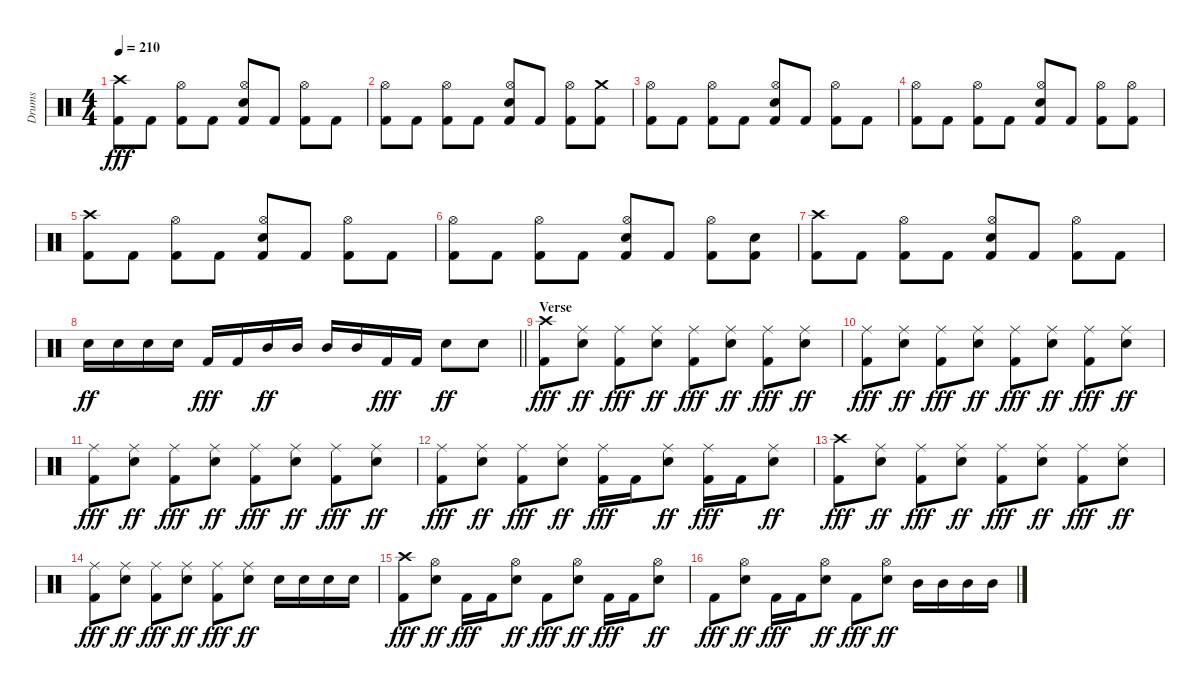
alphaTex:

\track ("Drums" "Drums") {instrument percussion}
\staff {score}
\articulation defaults
\ts (4 4)
\tempo 210
\clef neutral
\ks c
("Crash high (hit)" "Kick (hit) 2").8{dy fff} "Kick (hit) 2".8 ("Hi-Hat (open)" "Kick (hit) 2").8 "Kick (hit) 2".8 ("Hi-Hat (open)" "Snare (hit) 2" "Kick (hit) 2").8 "Kick (hit) 2".8 ("Hi-Hat (open)" "Kick (hit) 2").8 "Kick (hit) 2".8 |
("Hi-Hat (open)" "Kick (hit) 2").8 "Kick (hit) 2".8 ("Hi-Hat (open)" "Kick (hit) 2").8 "Kick (hit) 2".8 ("Hi-Hat (open)" "Snare (hit) 2" "Kick (hit) 2").8 "Kick (hit) 2".8 ("Hi-Hat (open)" "Kick (hit) 2").8 ("Crash medium (hit)" "Kick (hit) 2").8 |
("Hi-Hat (open)" "Kick (hit) 2").8 "Kick (hit) 2".8 ("Hi-Hat (open)" "Kick (hit) 2").8 "Kick (hit) 2".8 ("Hi-Hat (open)" "Snare (hit) 2" "Kick (hit) 2").8 "Kick (hit) 2".8 ("Hi-Hat (open)" "Kick (hit) 2").8 "Kick (hit) 2".8 |
("Hi-Hat (open)" "Kick (hit) 2").8 "Kick (hit) 2".8 ("Hi-Hat (open)" "Kick (hit) 2").8 "Kick (hit) 2".8 ("Hi-Hat (open)" "Snare (hit) 2" "Kick (hit) 2").8 "Kick (hit) 2".8 ("Hi-Hat (open)" "Kick (hit) 2").8 ("Hi-Hat (open)" "Kick (hit) 2").8 |
("Crash high (hit)" "Kick (hit) 2").8 "Kick (hit) 2".8 ("Hi-Hat (open)" "Kick (hit) 2").8 "Kick (hit) 2".8 ("Hi-Hat (open)" "Snare (hit) 2" "Kick (hit) 2").8 "Kick (hit) 2".8 ("Hi-Hat (open)" "Kick (hit) 2").8 "Kick (hit) 2".8 |
("Hi-Hat (open)" "Kick (hit) 2").8 "Kick (hit) 2".8 ("Hi-Hat (open)" "Kick (hit) 2").8 "Kick (hit) 2".8 ("Hi-Hat (open)" "Snare (hit) 2" "Kick (hit) 2").8 "Kick (hit) 2".8 ("Hi-Hat (open)" "Kick (hit) 2").8 ("Snare (hit) 2" "Kick (hit) 2").8 |
("Crash high (hit)" "Kick (hit) 2").8 "Kick (hit) 2".8 ("Hi-Hat (open)" "Kick (hit) 2").8 "Kick (hit) 2".8 ("Hi-Hat (open)" "Snare (hit) 2" "Kick (hit) 2").8 "Kick (hit) 2".8 ("Hi-Hat (open)" "Kick (hit) 2").8 "Kick (hit) 2".8 |
\barLineRight lightlight "Snare (hit) 2".16{dy ff} "Snare (hit) 2".16 "Snare (hit) 2".16 "Snare (hit) 2".16 "Kick (hit) 2".16{dy fff} "Kick (hit) 2".16 "Mid Tom (hit)".16{dy ff} "Mid Tom (hit)".16 "Mid Tom (hit)".16 "Mid Tom (hit)".16 "Kick (hit) 2".16{dy fff} "Kick (hit) 2".16 "Snare (hit) 2".8{dy ff} "Snare (hit) 2".8
|
\section ("" "Verse")
("Crash high (hit)" "Kick (hit) 2").8{dy fff} ("Ride (middle)" "Snare (hit) 2").8{dy ff} ("Ride (middle)" "Kick (hit) 2").8{dy fff} ("Ride (middle)" "Snare (hit) 2").8{dy ff} ("Ride (middle)" "Kick (hit) 2").8{dy fff} ("Ride (middle)" "Snare (hit) 2").8{dy ff} ("Ride (middle)" "Kick (hit) 2").8{dy fff} ("Ride (middle)" "Snare (hit) 2").8{dy ff} |
("Ride (middle)" "Kick (hit) 2").8{dy fff} ("Ride (middle)" "Snare (hit) 2").8{dy ff} ("Ride (middle)" "Kick (hit) 2").8{dy fff} ("Ride (middle)" "Snare (hit) 2").8{dy ff} ("Ride (middle)" "Kick (hit) 2").8{dy fff} ("Ride (middle)" "Snare (hit) 2").8{dy ff} ("Ride (middle)" "Kick (hit) 2").8{dy fff} ("Ride (middle)" "Snare (hit) 2").8{dy ff} |
("Ride (middle)" "Kick (hit) 2").8{dy fff} ("Ride (middle)" "Snare (hit) 2").8{dy ff} ("Ride (middle)" "Kick (hit) 2").8{dy fff} ("Ride (middle)" "Snare (hit) 2").8{dy ff} ("Ride (middle)" "Kick (hit) 2").8{dy fff} ("Ride (middle)" "Snare (hit) 2").8{dy ff} ("Ride (middle)" "Kick (hit) 2").8{dy fff} ("Ride (middle)" "Snare (hit) 2").8{dy ff} |
("Ride (middle)" "Kick (hit) 2").8{dy fff} ("Ride (middle)" "Snare (hit) 2").8{dy ff} ("Ride (middle)" "Kick (hit) 2").8{dy fff} ("Ride (middle)" "Snare (hit) 2").8{dy ff} ("Ride (middle)" "Kick (hit) 2").16{dy fff} "Kick (hit) 2".16 ("Ride (middle)" "Snare (hit) 2").8{dy ff} ("Ride (middle)" "Kick (hit) 2").16{dy fff} "Kick (hit) 2".16 ("Ride (middle)" "Snare (hit) 2").8{dy ff} |
("Crash high (hit)" "Kick (hit) 2").8{dy fff} ("Ride (middle)" "Snare (hit) 2").8{dy ff} ("Ride (middle)" "Kick (hit) 2").8{dy fff} ("Ride (middle)" "Snare (hit) 2").8{dy ff} ("Ride (middle)" "Kick (hit) 2").8{dy fff} ("Ride (middle)" "Snare (hit) 2").8{dy ff} ("Ride (middle)" "Kick (hit) 2").8{dy fff} ("Ride (middle)" "Snare (hit) 2").8{dy ff} |
("Ride (middle)" "Kick (hit) 2").8{dy fff} ("Ride (middle)" "Snare (hit) 2").8{dy ff} ("Ride (middle)" "Kick (hit) 2").8{dy fff} ("Ride (middle)" "Snare (hit) 2").8{dy ff} ("Ride (middle)" "Kick (hit) 2").8{dy fff} ("Ride (middle)" "Snare (hit) 2").8{dy ff} "Snare (hit) 2".16 "Snare (hit) 2".16 "Snare (hit) 2".16 "Snare (hit) 2".16 |
("Crash high (hit)" "Kick (hit) 2").8{dy fff} ("Hi-Hat (open)" "Snare (hit) 2").8{dy ff} "Kick (hit) 2".16{dy fff} "Kick (hit) 2".16 ("Hi-Hat (open)" "Snare (hit) 2").8{dy ff} "Kick (hit) 2".8{dy fff} ("Hi-Hat (open)" "Snare (hit) 2").8{dy ff} "Kick (hit) 2".16{dy fff} "Kick (hit) 2".16 ("Hi-Hat (open)" "Snare (hit) 2").8{dy ff} |
"Kick (hit) 2".8{dy fff} ("Hi-Hat (open)" "Snare (hit) 2").8{dy ff} "Kick (hit) 2".16{dy fff} "Kick (hit) 2".16 ("Hi-Hat (open)" "Snare (hit) 2").8{dy ff} "Kick (hit) 2".8{dy fff} ("Hi-Hat (open)" "Snare (hit) 2").8{dy ff} "Mid Tom (hit)".16 "Mid Tom (hit)".16 "Mid Tom (hit)".16 "Mid Tom (hit)".16
